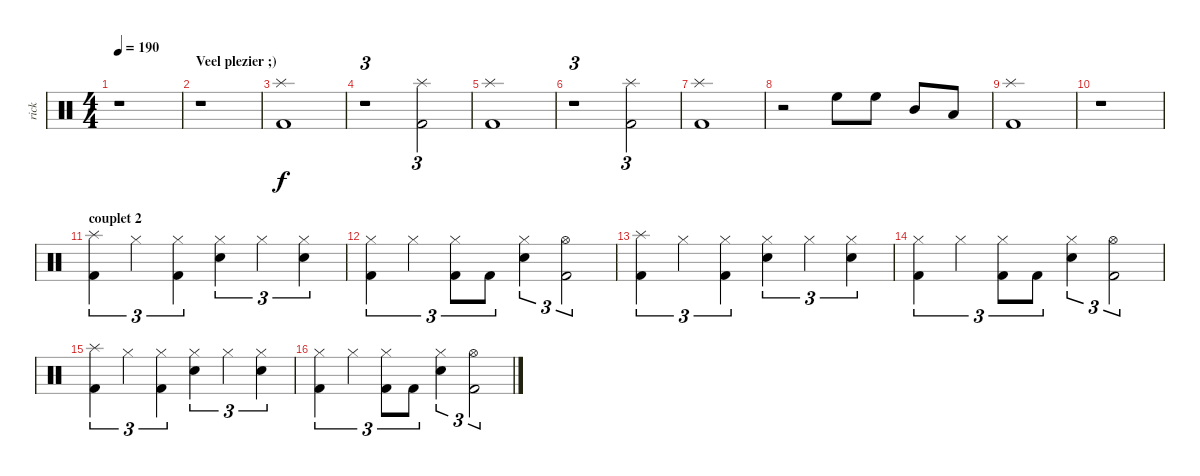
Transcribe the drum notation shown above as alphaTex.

\track ("rick" "rick") {instrument percussion}
\staff {score}
\articulation defaults
\ts (4 4)
\tempo 190
\clef neutral
\ks c
r.1{dy f} |
\section ("" "Veel plezier ;)")
r.1 |
("Splash (hit)" "Kick (hit) 2").1 |
r.1{tu (3 2)} ("Splash (hit)" "Kick (hit) 2").2{tu (3 2)} |
("Splash (hit)" "Kick (hit) 2").1 |
r.1{tu (3 2)} ("Splash (hit)" "Kick (hit) 2").2{tu (3 2)} |
("Splash (hit)" "Kick (hit) 2").1 |
r.2 "High Floor Tom (hit)".8 "High Floor Tom (hit)".8 "Mid Tom (hit)".8 "Low Floor Tom (hit)".8 |
("Splash (hit)" "Kick (hit) 2").1 |
r.1 |
\section ("" "couplet 2")
("Splash (hit)" "Kick (hit) 2").4{tu (3 2)} "Hi-Hat (closed)".4{tu (3 2)} ("Hi-Hat (closed)" "Kick (hit) 2").4{tu (3 2)} ("Hi-Hat (closed)" "Snare (hit) 2").4{tu (3 2)} "Hi-Hat (closed)".4{tu (3 2)} ("Hi-Hat (closed)" "Snare (hit) 2").4{tu (3 2)} |
("Hi-Hat (closed)" "Kick (hit) 2").4{tu (3 2)} "Hi-Hat (closed)".4{tu (3 2)} ("Hi-Hat (closed)" "Kick (hit) 2").8{tu (3 2)} "Kick (hit) 2".8{tu (3 2)} ("Hi-Hat (closed)" "Snare (hit) 2").4{tu (3 2)} ("Hi-Hat (open)" "Kick (hit) 2").2{tu (3 2)} |
("Splash (hit)" "Kick (hit) 2").4{tu (3 2)} "Hi-Hat (closed)".4{tu (3 2)} ("Hi-Hat (closed)" "Kick (hit) 2").4{tu (3 2)} ("Hi-Hat (closed)" "Snare (hit) 2").4{tu (3 2)} "Hi-Hat (closed)".4{tu (3 2)} ("Hi-Hat (closed)" "Snare (hit) 2").4{tu (3 2)} |
("Hi-Hat (closed)" "Kick (hit) 2").4{tu (3 2)} "Hi-Hat (closed)".4{tu (3 2)} ("Hi-Hat (closed)" "Kick (hit) 2").8{tu (3 2)} "Kick (hit) 2".8{tu (3 2)} ("Hi-Hat (closed)" "Snare (hit) 2").4{tu (3 2)} ("Hi-Hat (open)" "Kick (hit) 2").2{tu (3 2)} |
("Splash (hit)" "Kick (hit) 2").4{tu (3 2)} "Hi-Hat (closed)".4{tu (3 2)} ("Hi-Hat (closed)" "Kick (hit) 2").4{tu (3 2)} ("Hi-Hat (closed)" "Snare (hit) 2").4{tu (3 2)} "Hi-Hat (closed)".4{tu (3 2)} ("Hi-Hat (closed)" "Snare (hit) 2").4{tu (3 2)} |
("Hi-Hat (closed)" "Kick (hit) 2").4{tu (3 2)} "Hi-Hat (closed)".4{tu (3 2)} ("Hi-Hat (closed)" "Kick (hit) 2").8{tu (3 2)} "Kick (hit) 2".8{tu (3 2)} ("Hi-Hat (closed)" "Snare (hit) 2").4{tu (3 2)} ("Hi-Hat (open)" "Kick (hit) 2").2{tu (3 2)}
